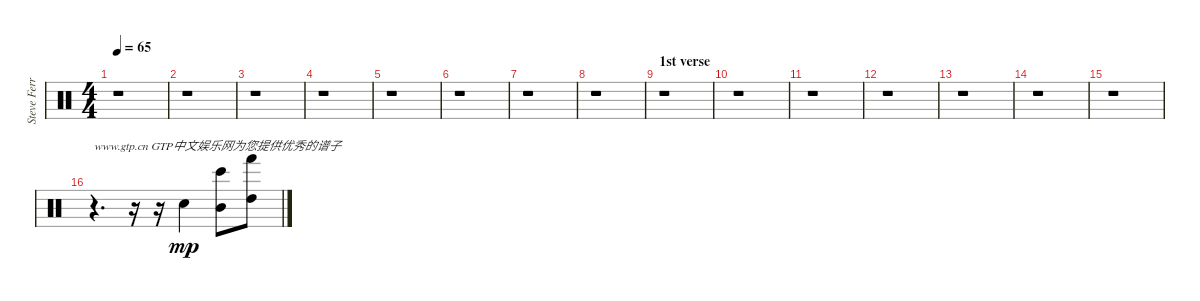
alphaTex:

\track ("Steve Ferrone & Ray Cooper" "Steve Ferr") {instrument percussion}
\staff {score}
\articulation defaults
\ts (4 4)
\tempo 65
\clef neutral
\ks c
r.1{dy mp} |
r.1 |
r.1 |
r.1 |
r.1 |
r.1 |
r.1 |
r.1 |
\section ("" "1st verse")
r.1 |
r.1 |
r.1 |
r.1 |
r.1 |
r.1 |
r.1 |
r.4{d txt "www.gtp.cn GTP中文娱乐网为您提供优秀的谱子"} r.16 r.16 "Snare (hit) 2".4 ("Mid Tom (hit)" "Bongo High (hit)").8 ("High Tom (hit)" "Hand (hit)").8
